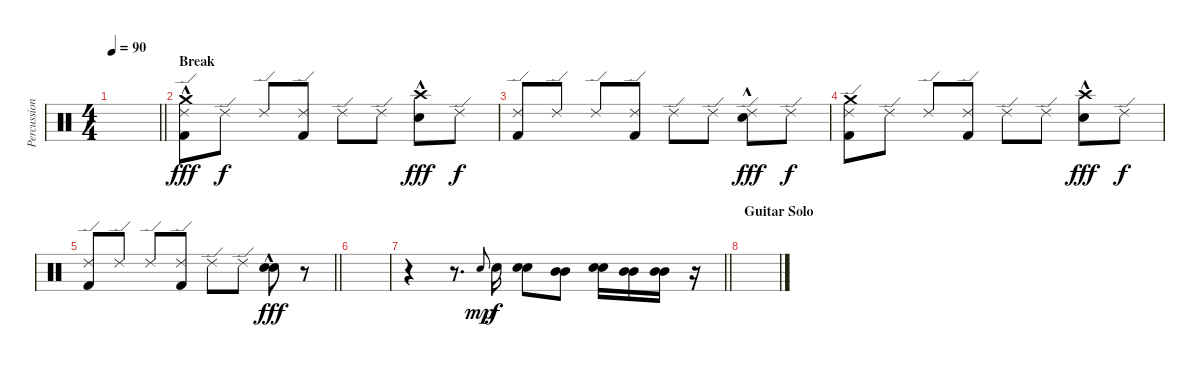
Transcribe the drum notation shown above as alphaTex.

\track ("Percussion" "Percussion") {instrument percussion}
\staff {score}
\articulation defaults
\ts (4 4)
\tempo 90
\clef neutral
\barLineRight lightlight
\ks c
|
\section ("" "Break")
("Crash medium (hit)"{hac} "Ride (edge) 2"{hac} "Kick (hit) 2").8{dy fff} "Ride (edge) 2".8{dy f} "Ride (edge) 2".8 ("Ride (edge) 2" "Kick (hit) 2").8 "Ride (edge) 2".8 "Ride (edge) 2".8 ("Crash high (hit)"{hac} "Electric Snare (hit)"{hac}).8{dy fff} "Ride (edge) 2".8{dy f} |
("Ride (edge) 2" "Kick (hit) 2").8 "Ride (edge) 2".8 "Ride (edge) 2".8 ("Ride (edge) 2" "Kick (hit) 2").8 "Ride (edge) 2".8 "Ride (edge) 2".8 ("Ride (edge) 2" "Electric Snare (hit)"{hac}).8{dy fff} "Ride (edge) 2".8{dy f} |
("Crash medium (hit)" "Ride (edge) 2" "Kick (hit) 2").8 "Ride (edge) 2".8 "Ride (edge) 2".8 ("Ride (edge) 2" "Kick (hit) 2").8 "Ride (edge) 2".8 "Ride (edge) 2".8 ("Crash high (hit)"{hac} "Electric Snare (hit)"{hac}).8{dy fff} "Ride (edge) 2".8{dy f} |
\barLineRight lightlight
("Ride (edge) 2" "Kick (hit) 2").8 "Ride (edge) 2".8 "Ride (edge) 2".8 ("Ride (edge) 2" "Kick (hit) 2").8 "Ride (edge) 2".8 "Ride (edge) 2".8 ("Electric Snare (hit)"{hac} "Electric Snare (hit)"{hac}).8{dy fff} r.8 |
|
\barLineRight lightlight
r.4 r.8{d} "Electric Snare (hit)"{h}.8{gr onbeat dy mp} "Electric Snare (hit)".16{dy f} ("Electric Snare (hit)" "Electric Snare (hit)").8 ("Mid Tom (hit)" "Mid Tom (hit)").8 ("Electric Snare (hit)" "Electric Snare (hit)").16 ("Mid Tom (hit)" "Mid Tom (hit)").16 ("Mid Tom (hit)" "Mid Tom (hit)").16 r.16 |
\section ("" "Guitar Solo")
